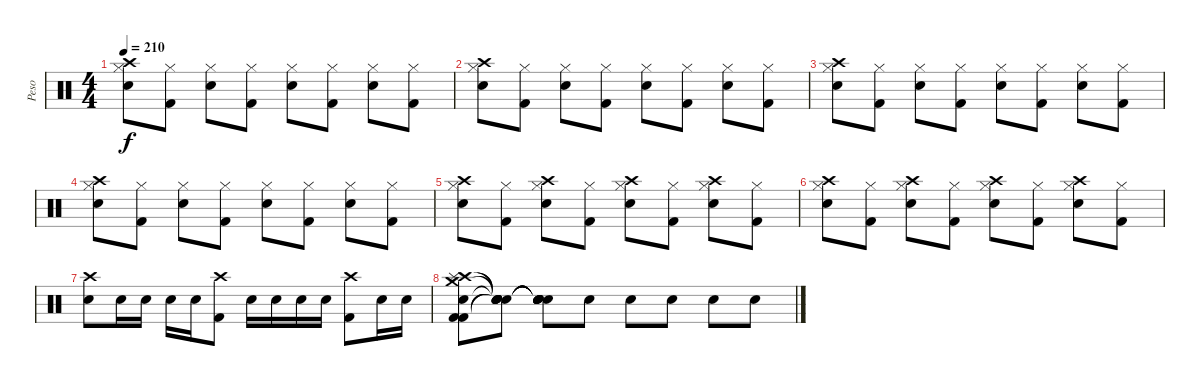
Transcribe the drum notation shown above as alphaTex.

\track ("Peso" "Peso") {instrument percussion}
\staff {score}
\articulation defaults
\ts (4 4)
\tempo 210
\clef neutral
\ks c
("Crash high (hit)" "Hi-Hat (closed)" "Snare (hit) 2").8{dy f} ("Hi-Hat (closed)" "Kick (hit) 2").8 ("Hi-Hat (closed)" "Snare (hit) 2").8 ("Hi-Hat (closed)" "Kick (hit) 2").8 ("Hi-Hat (closed)" "Snare (hit) 2").8 ("Hi-Hat (closed)" "Kick (hit) 2").8 ("Hi-Hat (closed)" "Snare (hit) 2").8 ("Hi-Hat (closed)" "Kick (hit) 2").8 |
("Crash high (hit)" "Hi-Hat (closed)" "Snare (hit) 2").8 ("Hi-Hat (closed)" "Kick (hit) 2").8 ("Hi-Hat (closed)" "Snare (hit) 2").8 ("Hi-Hat (closed)" "Kick (hit) 2").8 ("Hi-Hat (closed)" "Snare (hit) 2").8 ("Hi-Hat (closed)" "Kick (hit) 2").8 ("Hi-Hat (closed)" "Snare (hit) 2").8 ("Hi-Hat (closed)" "Kick (hit) 2").8 |
("Crash high (hit)" "Hi-Hat (closed)" "Snare (hit) 2").8 ("Hi-Hat (closed)" "Kick (hit) 2").8 ("Hi-Hat (closed)" "Snare (hit) 2").8 ("Hi-Hat (closed)" "Kick (hit) 2").8 ("Hi-Hat (closed)" "Snare (hit) 2").8 ("Hi-Hat (closed)" "Kick (hit) 2").8 ("Hi-Hat (closed)" "Snare (hit) 2").8 ("Hi-Hat (closed)" "Kick (hit) 2").8 |
("Crash high (hit)" "Hi-Hat (closed)" "Snare (hit) 2").8 ("Hi-Hat (closed)" "Kick (hit) 2").8 ("Hi-Hat (closed)" "Snare (hit) 2").8 ("Hi-Hat (closed)" "Kick (hit) 2").8 ("Hi-Hat (closed)" "Snare (hit) 2").8 ("Hi-Hat (closed)" "Kick (hit) 2").8 ("Hi-Hat (closed)" "Snare (hit) 2").8 ("Hi-Hat (closed)" "Kick (hit) 2").8 |
("Crash high (hit)" "Hi-Hat (closed)" "Snare (hit) 2").8 ("Hi-Hat (closed)" "Kick (hit) 2").8 ("Crash high (hit)" "Hi-Hat (closed)" "Snare (hit) 2").8 ("Hi-Hat (closed)" "Kick (hit) 2").8 ("Crash high (hit)" "Hi-Hat (closed)" "Snare (hit) 2").8 ("Hi-Hat (closed)" "Kick (hit) 2").8 ("Crash high (hit)" "Hi-Hat (closed)" "Snare (hit) 2").8 ("Hi-Hat (closed)" "Kick (hit) 2").8 |
("Crash high (hit)" "Hi-Hat (closed)" "Snare (hit) 2").8 ("Hi-Hat (closed)" "Kick (hit) 2").8 ("Crash high (hit)" "Hi-Hat (closed)" "Snare (hit) 2").8 ("Hi-Hat (closed)" "Kick (hit) 2").8 ("Crash high (hit)" "Hi-Hat (closed)" "Snare (hit) 2").8 ("Hi-Hat (closed)" "Kick (hit) 2").8 ("Crash high (hit)" "Hi-Hat (closed)" "Snare (hit) 2").8 ("Hi-Hat (closed)" "Kick (hit) 2").8 |
("Crash high (hit)" "Snare (hit) 2").8 "Snare (hit) 2".16 "Snare (hit) 2".16 "Snare (hit) 2".16 "Snare (hit) 2".16 ("Crash high (hit)" "Kick (hit) 2").8 "Snare (hit) 2".16 "Snare (hit) 2".16 "Snare (hit) 2".16 "Snare (hit) 2".16 ("Crash high (hit)" "Kick (hit) 2").8 "Snare (hit) 2".16 "Snare (hit) 2".16 |
("Snare (hit) 2" "Kick (hit) 2" "Crash high (hit)" "Crash medium (hit)" "Splash (hit)" "Kick (hit) 2").8 ("Snare (hit)"{t} "Snare (hit)"{t} "Snare (hit)"{t} "Snare (hit)"{t} "Snare (hit)"{t} "Snare (hit)"{t}).8 ("Snare (hit)"{t} "Snare (hit)"{t} "Snare (hit)"{t} "Snare (hit)"{t} "Snare (hit)"{t} "Snare (hit)"{t}).8 "Snare (hit)"{x}.8 "Snare (hit)"{x}.8 "Snare (hit)"{x}.8 "Snare (hit)"{x}.8 "Snare (hit)"{x}.8
